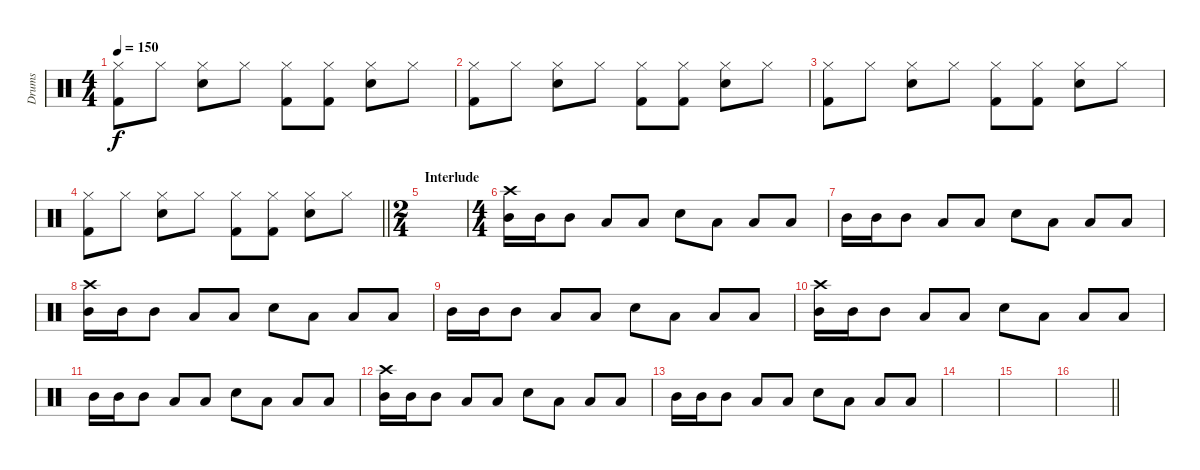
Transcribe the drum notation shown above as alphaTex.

\track ("Drums" "Drums") {instrument percussion}
\staff {score}
\articulation defaults
\ts (4 4)
\tempo 150
\clef neutral
\ks c
("Hi-Hat (closed)" "Kick (hit) 2").8{dy f} "Hi-Hat (closed)".8 ("Hi-Hat (closed)" "Snare (hit) 2").8 "Hi-Hat (closed)".8 ("Hi-Hat (closed)" "Kick (hit) 2").8 ("Hi-Hat (closed)" "Kick (hit) 2").8 ("Hi-Hat (closed)" "Snare (hit) 2").8 "Hi-Hat (closed)".8 |
("Hi-Hat (closed)" "Kick (hit) 2").8 "Hi-Hat (closed)".8 ("Hi-Hat (closed)" "Snare (hit) 2").8 "Hi-Hat (closed)".8 ("Hi-Hat (closed)" "Kick (hit) 2").8 ("Hi-Hat (closed)" "Kick (hit) 2").8 ("Hi-Hat (closed)" "Snare (hit) 2").8 "Hi-Hat (closed)".8 |
("Hi-Hat (closed)" "Kick (hit) 2").8 "Hi-Hat (closed)".8 ("Hi-Hat (closed)" "Snare (hit) 2").8 "Hi-Hat (closed)".8 ("Hi-Hat (closed)" "Kick (hit) 2").8 ("Hi-Hat (closed)" "Kick (hit) 2").8 ("Hi-Hat (closed)" "Snare (hit) 2").8 "Hi-Hat (closed)".8 |
\barLineRight lightlight
("Hi-Hat (closed)" "Kick (hit) 2").8 "Hi-Hat (closed)".8 ("Hi-Hat (closed)" "Snare (hit) 2").8 "Hi-Hat (closed)".8 ("Hi-Hat (closed)" "Kick (hit) 2").8 ("Hi-Hat (closed)" "Kick (hit) 2").8 ("Hi-Hat (closed)" "Snare (hit) 2").8 "Hi-Hat (closed)".8 |
\ts (2 4)
\section ("" "Interlude")
|
\ts (4 4)
("Crash high (hit)" "Mid Tom (hit)").16 "Mid Tom (hit)".16 "Mid Tom (hit)".8 "Low Tom (hit)".8 "Low Tom (hit)".8 "Snare (hit) 2".8 "Low Tom (hit)".8 "Low Tom (hit)".8 "Low Tom (hit)".8 |
"Mid Tom (hit)".16 "Mid Tom (hit)".16 "Mid Tom (hit)".8 "Low Tom (hit)".8 "Low Tom (hit)".8 "Snare (hit) 2".8 "Low Tom (hit)".8 "Low Tom (hit)".8 "Low Tom (hit)".8 |
("Crash high (hit)" "Mid Tom (hit)").16 "Mid Tom (hit)".16 "Mid Tom (hit)".8 "Low Tom (hit)".8 "Low Tom (hit)".8 "Snare (hit) 2".8 "Low Tom (hit)".8 "Low Tom (hit)".8 "Low Tom (hit)".8 |
"Mid Tom (hit)".16 "Mid Tom (hit)".16 "Mid Tom (hit)".8 "Low Tom (hit)".8 "Low Tom (hit)".8 "Snare (hit) 2".8 "Low Tom (hit)".8 "Low Tom (hit)".8 "Low Tom (hit)".8 |
("Crash high (hit)" "Mid Tom (hit)").16 "Mid Tom (hit)".16 "Mid Tom (hit)".8 "Low Tom (hit)".8 "Low Tom (hit)".8 "Snare (hit) 2".8 "Low Tom (hit)".8 "Low Tom (hit)".8 "Low Tom (hit)".8 |
"Mid Tom (hit)".16 "Mid Tom (hit)".16 "Mid Tom (hit)".8 "Low Tom (hit)".8 "Low Tom (hit)".8 "Snare (hit) 2".8 "Low Tom (hit)".8 "Low Tom (hit)".8 "Low Tom (hit)".8 |
("Crash high (hit)" "Mid Tom (hit)").16 "Mid Tom (hit)".16 "Mid Tom (hit)".8 "Low Tom (hit)".8 "Low Tom (hit)".8 "Snare (hit) 2".8 "Low Tom (hit)".8 "Low Tom (hit)".8 "Low Tom (hit)".8 |
"Mid Tom (hit)".16 "Mid Tom (hit)".16 "Mid Tom (hit)".8 "Low Tom (hit)".8 "Low Tom (hit)".8 "Snare (hit) 2".8 "Low Tom (hit)".8 "Low Tom (hit)".8 "Low Tom (hit)".8 |
|
|
\barLineRight lightlight
